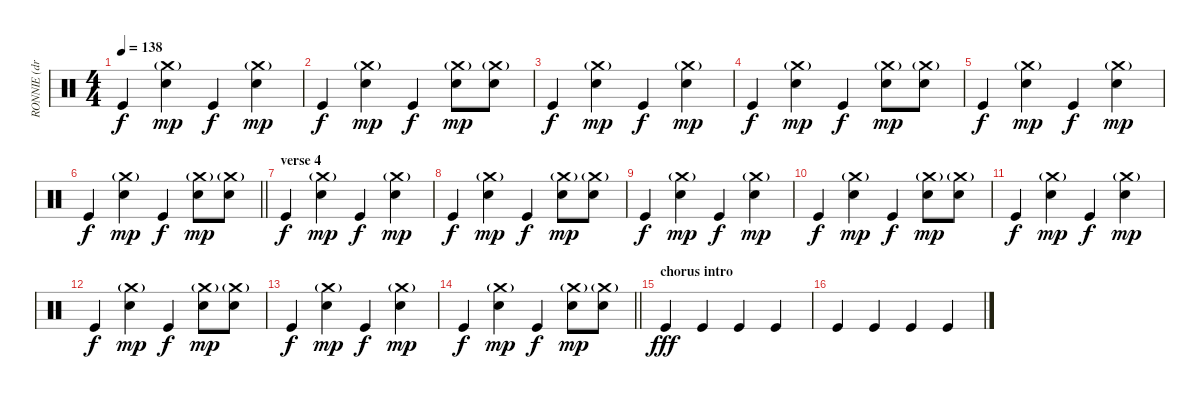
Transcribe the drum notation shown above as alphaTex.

\track ("RONNIE (drums)" "RONNIE (dr") {instrument percussion}
\staff {score}
\articulation defaults
\ts (4 4)
\tempo 138
\clef neutral
\ks c "Kick (hit)".4{dy f}
("Electric Snare (hit)" "Crash medium (hit)"{g}).4{dy mp} "Kick (hit)".4{dy f} ("Electric Snare (hit)" "Crash medium (hit)"{g}).4{dy mp} |
"Kick (hit)".4{dy f} ("Electric Snare (hit)" "Crash medium (hit)"{g}).4{dy mp} "Kick (hit)".4{dy f} ("Electric Snare (hit)" "Crash medium (hit)"{g}).8{dy mp} ("Electric Snare (hit)" "Crash medium (hit)"{g}).8 |
"Kick (hit)".4{dy f} ("Electric Snare (hit)" "Crash medium (hit)"{g}).4{dy mp} "Kick (hit)".4{dy f} ("Electric Snare (hit)" "Crash medium (hit)"{g}).4{dy mp} |
"Kick (hit)".4{dy f} ("Electric Snare (hit)" "Crash medium (hit)"{g}).4{dy mp} "Kick (hit)".4{dy f} ("Electric Snare (hit)" "Crash medium (hit)"{g}).8{dy mp} ("Electric Snare (hit)" "Crash medium (hit)"{g}).8 |
"Kick (hit)".4{dy f} ("Electric Snare (hit)" "Crash medium (hit)"{g}).4{dy mp} "Kick (hit)".4{dy f} ("Electric Snare (hit)" "Crash medium (hit)"{g}).4{dy mp} |
\barLineRight lightlight "Kick (hit)".4{dy f}
("Electric Snare (hit)" "Crash medium (hit)"{g}).4{dy mp} "Kick (hit)".4{dy f} ("Electric Snare (hit)" "Crash medium (hit)"{g}).8{dy mp} ("Electric Snare (hit)" "Crash medium (hit)"{g}).8 |
\section ("" "verse 4")
"Kick (hit)".4{dy f} ("Electric Snare (hit)" "Crash medium (hit)"{g}).4{dy mp} "Kick (hit)".4{dy f} ("Electric Snare (hit)" "Crash medium (hit)"{g}).4{dy mp} |
"Kick (hit)".4{dy f} ("Electric Snare (hit)" "Crash medium (hit)"{g}).4{dy mp} "Kick (hit)".4{dy f} ("Electric Snare (hit)" "Crash medium (hit)"{g}).8{dy mp} ("Electric Snare (hit)" "Crash medium (hit)"{g}).8 |
"Kick (hit)".4{dy f} ("Electric Snare (hit)" "Crash medium (hit)"{g}).4{dy mp} "Kick (hit)".4{dy f} ("Electric Snare (hit)" "Crash medium (hit)"{g}).4{dy mp} |
"Kick (hit)".4{dy f} ("Electric Snare (hit)" "Crash medium (hit)"{g}).4{dy mp} "Kick (hit)".4{dy f} ("Electric Snare (hit)" "Crash medium (hit)"{g}).8{dy mp} ("Electric Snare (hit)" "Crash medium (hit)"{g}).8 |
"Kick (hit)".4{dy f} ("Electric Snare (hit)" "Crash medium (hit)"{g}).4{dy mp} "Kick (hit)".4{dy f} ("Electric Snare (hit)" "Crash medium (hit)"{g}).4{dy mp} |
"Kick (hit)".4{dy f} ("Electric Snare (hit)" "Crash medium (hit)"{g}).4{dy mp} "Kick (hit)".4{dy f} ("Electric Snare (hit)" "Crash medium (hit)"{g}).8{dy mp} ("Electric Snare (hit)" "Crash medium (hit)"{g}).8 |
"Kick (hit)".4{dy f} ("Electric Snare (hit)" "Crash medium (hit)"{g}).4{dy mp} "Kick (hit)".4{dy f} ("Electric Snare (hit)" "Crash medium (hit)"{g}).4{dy mp} |
\barLineRight lightlight "Kick (hit)".4{dy f}
("Electric Snare (hit)" "Crash medium (hit)"{g}).4{dy mp} "Kick (hit)".4{dy f} ("Electric Snare (hit)" "Crash medium (hit)"{g}).8{dy mp} ("Electric Snare (hit)" "Crash medium (hit)"{g}).8 |
\section ("" "chorus intro")
"Kick (hit)".4{dy fff} "Kick (hit)".4 "Kick (hit)".4 "Kick (hit)".4 |
"Kick (hit)".4 "Kick (hit)".4 "Kick (hit)".4 "Kick (hit)".4
